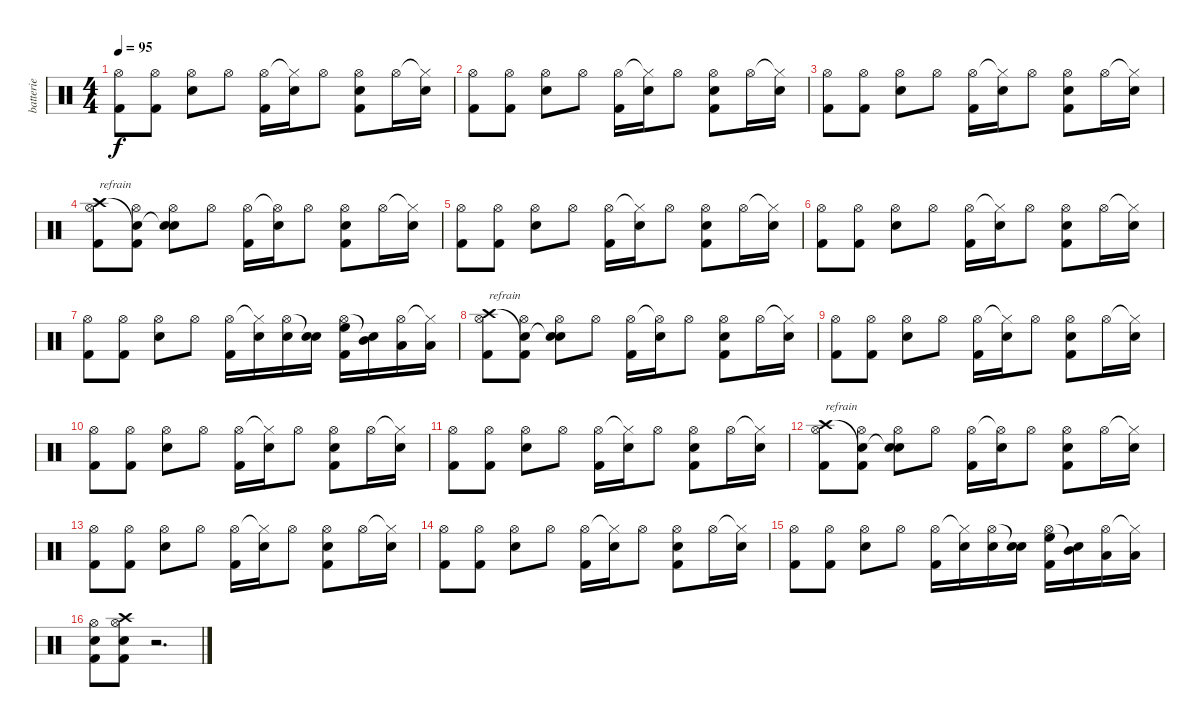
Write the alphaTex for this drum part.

\track ("batterie" "batterie") {instrument percussion}
\staff {score}
\articulation defaults
\ts (4 4)
\tempo 95
\clef neutral
\ks c
("Hi-Hat (open)" "Kick (hit) 2").8{dy f} ("Hi-Hat (open)" "Kick (hit) 2").8 ("Hi-Hat (open)" "Snare (hit) 2").8 "Hi-Hat (open)".8 ("Hi-Hat (open)" "Kick (hit) 2").16 ("Hi-Hat (closed)"{t} "Snare (hit) 2").16 "Hi-Hat (open)".8 ("Hi-Hat (open)" "Snare (hit) 2" "Kick (hit) 2").8 "Hi-Hat (open)".16 ("Hi-Hat (closed)"{t} "Snare (hit) 2").16 |
("Hi-Hat (open)" "Kick (hit) 2").8 ("Hi-Hat (open)" "Kick (hit) 2").8 ("Hi-Hat (open)" "Snare (hit) 2").8 "Hi-Hat (open)".8 ("Hi-Hat (open)" "Kick (hit) 2").16 ("Hi-Hat (closed)"{t} "Snare (hit) 2").16 "Hi-Hat (open)".8 ("Hi-Hat (open)" "Snare (hit) 2" "Kick (hit) 2").8 "Hi-Hat (open)".16 ("Hi-Hat (closed)"{t} "Snare (hit) 2").16 |
("Hi-Hat (open)" "Kick (hit) 2").8 ("Hi-Hat (open)" "Kick (hit) 2").8 ("Hi-Hat (open)" "Snare (hit) 2").8 "Hi-Hat (open)".8 ("Hi-Hat (open)" "Kick (hit) 2").16 ("Hi-Hat (closed)"{t} "Snare (hit) 2").16 "Hi-Hat (open)".8 ("Hi-Hat (open)" "Snare (hit) 2" "Kick (hit) 2").8 "Hi-Hat (open)".16 ("Hi-Hat (closed)"{t} "Snare (hit) 2").16 |
("Crash high (hit)" "Hi-Hat (open)" "Kick (hit) 2").8{txt "refrain"} ("Snare (hit)"{t} "Hi-Hat (open)" "Kick (hit) 2").8 ("Snare (hit)"{t} "Hi-Hat (open)" "Snare (hit) 2").8 "Hi-Hat (open)".8 ("Hi-Hat (open)" "Kick (hit) 2").16 ("Hi-Hat (open)"{t} "Snare (hit) 2").16 "Hi-Hat (open)".8 ("Hi-Hat (open)" "Snare (hit) 2" "Kick (hit) 2").8 "Hi-Hat (open)".16 ("Hi-Hat (closed)"{t} "Snare (hit) 2").16 |
("Hi-Hat (open)" "Kick (hit) 2").8 ("Hi-Hat (open)" "Kick (hit) 2").8 ("Hi-Hat (open)" "Snare (hit) 2").8 "Hi-Hat (open)".8 ("Hi-Hat (open)" "Kick (hit) 2").16 ("Hi-Hat (closed)"{t} "Snare (hit) 2").16 "Hi-Hat (open)".8 ("Hi-Hat (open)" "Snare (hit) 2" "Kick (hit) 2").8 "Hi-Hat (open)".16 ("Hi-Hat (closed)"{t} "Snare (hit) 2").16 |
("Hi-Hat (open)" "Kick (hit) 2").8 ("Hi-Hat (open)" "Kick (hit) 2").8 ("Hi-Hat (open)" "Snare (hit) 2").8 "Hi-Hat (open)".8 ("Hi-Hat (open)" "Kick (hit) 2").16 ("Hi-Hat (closed)"{t} "Snare (hit) 2").16 "Hi-Hat (open)".8 ("Hi-Hat (open)" "Snare (hit) 2" "Kick (hit) 2").8 "Hi-Hat (open)".16 ("Hi-Hat (closed)"{t} "Snare (hit) 2").16 |
("Hi-Hat (open)" "Kick (hit) 2").8 ("Hi-Hat (open)" "Kick (hit) 2").8 ("Hi-Hat (open)" "Snare (hit) 2").8 "Hi-Hat (open)".8 ("Hi-Hat (open)" "Kick (hit) 2").16 ("Hi-Hat (closed)"{t} "Snare (hit) 2").16 ("Hi-Hat (open)" "Snare (hit) 2").16 ("Snare (hit)"{t} "Snare (hit) 2").16 ("Hi-Hat (open)" "High Floor Tom (hit)" "Kick (hit) 2").16 ("Snare (hit)"{t} "Mid Tom (hit)").16 ("Hi-Hat (open)" "Low Tom (hit)").16 ("Hi-Hat (closed)"{t} "Low Floor Tom (hit)").16 |
("Crash high (hit)" "Hi-Hat (open)" "Kick (hit) 2").8{txt "refrain"} ("Snare (hit)"{t} "Hi-Hat (open)" "Kick (hit) 2").8 ("Snare (hit)"{t} "Hi-Hat (open)" "Snare (hit) 2").8 "Hi-Hat (open)".8 ("Hi-Hat (open)" "Kick (hit) 2").16 ("Hi-Hat (open)"{t} "Snare (hit) 2").16 "Hi-Hat (open)".8 ("Hi-Hat (open)" "Snare (hit) 2" "Kick (hit) 2").8 "Hi-Hat (open)".16 ("Hi-Hat (closed)"{t} "Snare (hit) 2").16 |
("Hi-Hat (open)" "Kick (hit) 2").8 ("Hi-Hat (open)" "Kick (hit) 2").8 ("Hi-Hat (open)" "Snare (hit) 2").8 "Hi-Hat (open)".8 ("Hi-Hat (open)" "Kick (hit) 2").16 ("Hi-Hat (closed)"{t} "Snare (hit) 2").16 "Hi-Hat (open)".8 ("Hi-Hat (open)" "Snare (hit) 2" "Kick (hit) 2").8 "Hi-Hat (open)".16 ("Hi-Hat (closed)"{t} "Snare (hit) 2").16 |
("Hi-Hat (open)" "Kick (hit) 2").8 ("Hi-Hat (open)" "Kick (hit) 2").8 ("Hi-Hat (open)" "Snare (hit) 2").8 "Hi-Hat (open)".8 ("Hi-Hat (open)" "Kick (hit) 2").16 ("Hi-Hat (closed)"{t} "Snare (hit) 2").16 "Hi-Hat (open)".8 ("Hi-Hat (open)" "Snare (hit) 2" "Kick (hit) 2").8 "Hi-Hat (open)".16 ("Hi-Hat (closed)"{t} "Snare (hit) 2").16 |
("Hi-Hat (open)" "Kick (hit) 2").8 ("Hi-Hat (open)" "Kick (hit) 2").8 ("Hi-Hat (open)" "Snare (hit) 2").8 "Hi-Hat (open)".8 ("Hi-Hat (open)" "Kick (hit) 2").16 ("Hi-Hat (closed)"{t} "Snare (hit) 2").16 "Hi-Hat (open)".8 ("Hi-Hat (open)" "Snare (hit) 2" "Kick (hit) 2").8 "Hi-Hat (open)".16 ("Hi-Hat (closed)"{t} "Snare (hit) 2").16 |
("Crash high (hit)" "Hi-Hat (open)" "Kick (hit) 2").8{txt "refrain"} ("Snare (hit)"{t} "Hi-Hat (open)" "Kick (hit) 2").8 ("Snare (hit)"{t} "Hi-Hat (open)" "Snare (hit) 2").8 "Hi-Hat (open)".8 ("Hi-Hat (open)" "Kick (hit) 2").16 ("Hi-Hat (open)"{t} "Snare (hit) 2").16 "Hi-Hat (open)".8 ("Hi-Hat (open)" "Snare (hit) 2" "Kick (hit) 2").8 "Hi-Hat (open)".16 ("Hi-Hat (closed)"{t} "Snare (hit) 2").16 |
("Hi-Hat (open)" "Kick (hit) 2").8 ("Hi-Hat (open)" "Kick (hit) 2").8 ("Hi-Hat (open)" "Snare (hit) 2").8 "Hi-Hat (open)".8 ("Hi-Hat (open)" "Kick (hit) 2").16 ("Hi-Hat (closed)"{t} "Snare (hit) 2").16 "Hi-Hat (open)".8 ("Hi-Hat (open)" "Snare (hit) 2" "Kick (hit) 2").8 "Hi-Hat (open)".16 ("Hi-Hat (closed)"{t} "Snare (hit) 2").16 |
("Hi-Hat (open)" "Kick (hit) 2").8 ("Hi-Hat (open)" "Kick (hit) 2").8 ("Hi-Hat (open)" "Snare (hit) 2").8 "Hi-Hat (open)".8 ("Hi-Hat (open)" "Kick (hit) 2").16 ("Hi-Hat (closed)"{t} "Snare (hit) 2").16 "Hi-Hat (open)".8 ("Hi-Hat (open)" "Snare (hit) 2" "Kick (hit) 2").8 "Hi-Hat (open)".16 ("Hi-Hat (closed)"{t} "Snare (hit) 2").16 |
("Hi-Hat (open)" "Kick (hit) 2").8 ("Hi-Hat (open)" "Kick (hit) 2").8 ("Hi-Hat (open)" "Snare (hit) 2").8 "Hi-Hat (open)".8 ("Hi-Hat (open)" "Kick (hit) 2").16 ("Hi-Hat (closed)"{t} "Snare (hit) 2").16 ("Hi-Hat (open)" "Snare (hit) 2").16 ("Snare (hit)"{t} "Snare (hit) 2").16 ("Hi-Hat (open)" "High Floor Tom (hit)" "Kick (hit) 2").16 ("Snare (hit)"{t} "Mid Tom (hit)").16 ("Hi-Hat (open)" "Low Tom (hit)").16 ("Hi-Hat (closed)"{t} "Low Floor Tom (hit)").16 |
("Hi-Hat (open)" "Snare (hit) 2" "Kick (hit) 2").8 ("Crash high (hit)" "Hi-Hat (open)" "Snare (hit) 2" "Kick (hit) 2").8 r.2{d}
